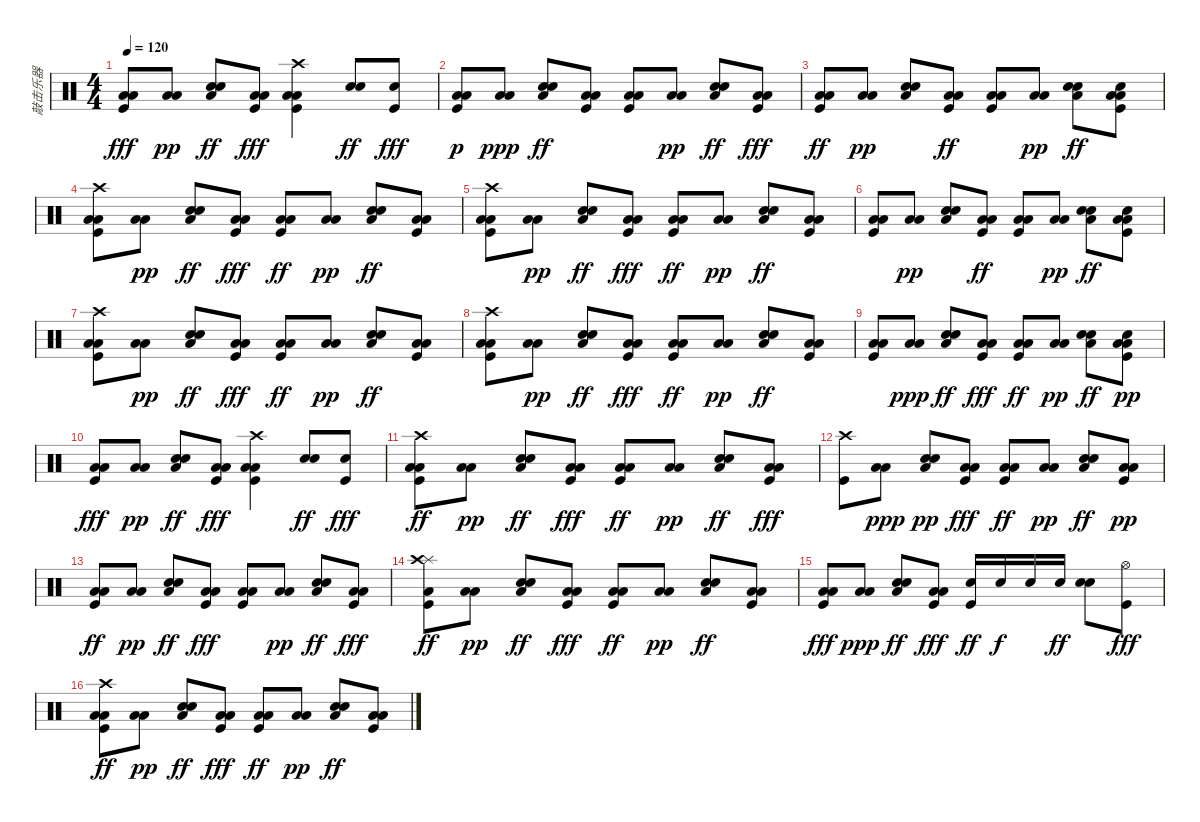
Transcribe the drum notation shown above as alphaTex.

\track ("敲击乐器" "敲击乐器") {instrument percussion}
\staff {score}
\articulation defaults
\ts (4 4)
\tempo 120
\clef neutral
\ks c
("Low Tom (hit)" "Low Floor Tom (hit)" "Kick (hit)").8{dy fff} ("Low Tom (hit)" "Low Floor Tom (hit)").8{dy pp} ("Snare (hit) 2" "Low Floor Tom (hit)" "Hand Clap (hit)").8{dy ff} ("Low Tom (hit)" "Low Floor Tom (hit)" "Kick (hit)").8{dy fff} ("Low Tom (hit)" "Low Floor Tom (hit)" "Kick (hit)" "Crash high (hit)").4 ("Snare (hit) 2" "Hand Clap (hit)").8{dy ff} ("Snare (hit) 2" "Kick (hit)").8{dy fff} |
("Low Tom (hit)" "Low Floor Tom (hit)" "Kick (hit)").8{dy p} ("Low Floor Tom (hit)" "Low Tom (hit)").8{dy ppp} ("Hand Clap (hit)" "Low Floor Tom (hit)" "Snare (hit) 2").8{dy ff} ("Low Tom (hit)" "Low Floor Tom (hit)" "Kick (hit)").8 ("Low Tom (hit)" "Low Floor Tom (hit)" "Kick (hit)").8 ("Low Tom (hit)" "Low Floor Tom (hit)").8{dy pp} ("Snare (hit) 2" "Low Floor Tom (hit)" "Hand Clap (hit)").8{dy ff} ("Low Tom (hit)" "Low Floor Tom (hit)" "Kick (hit)").8{dy fff} |
("Low Tom (hit)" "Low Floor Tom (hit)" "Kick (hit)").8{dy ff} ("Low Tom (hit)" "Low Floor Tom (hit)").8{dy pp} ("Hand Clap (hit)" "Snare (hit) 2" "Low Floor Tom (hit)").8 ("Low Tom (hit)" "Low Floor Tom (hit)" "Kick (hit)").8{dy ff} ("Low Tom (hit)" "Low Floor Tom (hit)" "Kick (hit)").8 ("Low Floor Tom (hit)" "Low Tom (hit)").8{dy pp} ("Snare (hit) 2" "Low Floor Tom (hit)" "Hand Clap (hit)").8{dy ff} ("Snare (hit) 2" "Low Tom (hit)" "Low Floor Tom (hit)" "Kick (hit)").8 |
("Crash high (hit)" "Low Tom (hit)" "Low Floor Tom (hit)" "Kick (hit)").8 ("Low Tom (hit)" "Low Floor Tom (hit)").8{dy pp} ("Snare (hit) 2" "Low Floor Tom (hit)" "Hand Clap (hit)").8{dy ff} ("Low Tom (hit)" "Low Floor Tom (hit)" "Kick (hit)").8{dy fff} ("Low Tom (hit)" "Low Floor Tom (hit)" "Kick (hit)").8{dy ff} ("Low Tom (hit)" "Low Floor Tom (hit)").8{dy pp} ("Low Floor Tom (hit)" "Hand Clap (hit)" "Snare (hit) 2").8{dy ff} ("Low Tom (hit)" "Low Floor Tom (hit)" "Kick (hit)").8 |
("Crash high (hit)" "Low Tom (hit)" "Low Floor Tom (hit)" "Kick (hit)").8 ("Low Tom (hit)" "Low Floor Tom (hit)").8{dy pp} ("Snare (hit) 2" "Low Floor Tom (hit)" "Hand Clap (hit)").8{dy ff} ("Low Tom (hit)" "Low Floor Tom (hit)" "Kick (hit)").8{dy fff} ("Low Tom (hit)" "Low Floor Tom (hit)" "Kick (hit)").8{dy ff} ("Low Tom (hit)" "Low Floor Tom (hit)").8{dy pp} ("Low Floor Tom (hit)" "Hand Clap (hit)" "Snare (hit) 2").8{dy ff} ("Low Tom (hit)" "Low Floor Tom (hit)" "Kick (hit)").8 |
("Low Tom (hit)" "Low Floor Tom (hit)" "Kick (hit)").8 ("Low Tom (hit)" "Low Floor Tom (hit)").8{dy pp} ("Hand Clap (hit)" "Snare (hit) 2" "Low Floor Tom (hit)").8 ("Low Tom (hit)" "Low Floor Tom (hit)" "Kick (hit)").8{dy ff} ("Low Tom (hit)" "Low Floor Tom (hit)" "Kick (hit)").8 ("Low Floor Tom (hit)" "Low Tom (hit)").8{dy pp} ("Snare (hit) 2" "Low Floor Tom (hit)" "Hand Clap (hit)").8{dy ff} ("Snare (hit) 2" "Low Tom (hit)" "Low Floor Tom (hit)" "Kick (hit)").8 |
("Crash high (hit)" "Low Tom (hit)" "Low Floor Tom (hit)" "Kick (hit)").8 ("Low Tom (hit)" "Low Floor Tom (hit)").8{dy pp} ("Snare (hit) 2" "Low Floor Tom (hit)" "Hand Clap (hit)").8{dy ff} ("Low Tom (hit)" "Low Floor Tom (hit)" "Kick (hit)").8{dy fff} ("Low Tom (hit)" "Low Floor Tom (hit)" "Kick (hit)").8{dy ff} ("Low Tom (hit)" "Low Floor Tom (hit)").8{dy pp} ("Low Floor Tom (hit)" "Hand Clap (hit)" "Snare (hit) 2").8{dy ff} ("Low Tom (hit)" "Low Floor Tom (hit)" "Kick (hit)").8 |
("Crash high (hit)" "Low Tom (hit)" "Low Floor Tom (hit)" "Kick (hit)").8 ("Low Tom (hit)" "Low Floor Tom (hit)").8{dy pp} ("Snare (hit) 2" "Low Floor Tom (hit)" "Hand Clap (hit)").8{dy ff} ("Low Tom (hit)" "Low Floor Tom (hit)" "Kick (hit)").8{dy fff} ("Low Tom (hit)" "Low Floor Tom (hit)" "Kick (hit)").8{dy ff} ("Low Tom (hit)" "Low Floor Tom (hit)").8{dy pp} ("Low Floor Tom (hit)" "Hand Clap (hit)" "Snare (hit) 2").8{dy ff} ("Low Tom (hit)" "Low Floor Tom (hit)" "Kick (hit)").8 |
("Low Tom (hit)" "Low Floor Tom (hit)" "Kick (hit)").8 ("Low Floor Tom (hit)" "Low Tom (hit)").8{dy ppp} ("Snare (hit) 2" "Low Floor Tom (hit)" "Hand Clap (hit)").8{dy ff} ("Low Tom (hit)" "Low Floor Tom (hit)" "Kick (hit)").8{dy fff} ("Low Tom (hit)" "Low Floor Tom (hit)" "Kick (hit)").8{dy ff} ("Low Tom (hit)" "Low Floor Tom (hit)").8{dy pp} ("Low Floor Tom (hit)" "Hand Clap (hit)" "Snare (hit) 2").8{dy ff} ("Snare (hit) 2" "Kick (hit)" "Low Tom (hit)" "Low Floor Tom (hit)").8{dy pp} |
("Low Tom (hit)" "Low Floor Tom (hit)" "Kick (hit)").8{dy fff} ("Low Tom (hit)" "Low Floor Tom (hit)").8{dy pp} ("Snare (hit) 2" "Low Floor Tom (hit)" "Hand Clap (hit)").8{dy ff} ("Low Tom (hit)" "Low Floor Tom (hit)" "Kick (hit)").8{dy fff} ("Low Tom (hit)" "Low Floor Tom (hit)" "Kick (hit)" "Crash high (hit)").4 ("Snare (hit) 2" "Hand Clap (hit)").8{dy ff} ("Snare (hit) 2" "Kick (hit)").8{dy fff} |
("Crash high (hit)" "Low Tom (hit)" "Low Floor Tom (hit)" "Kick (hit)").8{dy ff} ("Low Tom (hit)" "Low Floor Tom (hit)").8{dy pp} ("Snare (hit) 2" "Low Floor Tom (hit)" "Hand Clap (hit)").8{dy ff} ("Low Tom (hit)" "Low Floor Tom (hit)" "Kick (hit)").8{dy fff} ("Low Tom (hit)" "Low Floor Tom (hit)" "Kick (hit)").8{dy ff} ("Low Floor Tom (hit)" "Low Tom (hit)").8{dy pp} ("Snare (hit) 2" "Low Floor Tom (hit)" "Hand Clap (hit)").8{dy ff} ("Low Tom (hit)" "Low Floor Tom (hit)" "Kick (hit)").8{dy fff} |
("Crash high (hit)" "Kick (hit)").8 ("Low Floor Tom (hit)" "Low Tom (hit)").8{dy ppp} ("Hand Clap (hit)" "Snare (hit) 2" "Low Floor Tom (hit)").8{dy pp} ("Low Tom (hit)" "Low Floor Tom (hit)" "Kick (hit)").8{dy fff} ("Low Tom (hit)" "Low Floor Tom (hit)" "Kick (hit)").8{dy ff} ("Low Tom (hit)" "Low Floor Tom (hit)").8{dy pp} ("Snare (hit) 2" "Low Floor Tom (hit)" "Hand Clap (hit)").8{dy ff} ("Kick (hit)" "Low Tom (hit)" "Low Floor Tom (hit)").8{dy pp} |
("Low Tom (hit)" "Low Floor Tom (hit)" "Kick (hit)").8{dy ff} ("Low Tom (hit)" "Low Floor Tom (hit)").8{dy pp} ("Snare (hit) 2" "Low Floor Tom (hit)" "Hand Clap (hit)").8{dy ff} ("Low Tom (hit)" "Low Floor Tom (hit)" "Kick (hit)").8{dy fff} ("Low Tom (hit)" "Low Floor Tom (hit)" "Kick (hit)").8 ("Low Tom (hit)" "Low Floor Tom (hit)").8{dy pp} ("Low Floor Tom (hit)" "Hand Clap (hit)" "Snare (hit) 2").8{dy ff} ("Low Tom (hit)" "Low Floor Tom (hit)" "Kick (hit)").8{dy fff} |
("Splash (hit)" "Low Tom (hit)" "Kick (hit)" "Crash high (hit)").8{dy ff} ("Low Tom (hit)" "Low Floor Tom (hit)").8{dy pp} ("Low Floor Tom (hit)" "Hand Clap (hit)" "Snare (hit) 2").8{dy ff} ("Low Tom (hit)" "Low Floor Tom (hit)" "Kick (hit)").8{dy fff} ("Low Tom (hit)" "Low Floor Tom (hit)" "Kick (hit)").8{dy ff} ("Low Floor Tom (hit)" "Low Tom (hit)").8{dy pp} ("Low Floor Tom (hit)" "Hand Clap (hit)" "Snare (hit) 2").8{dy ff} ("Low Tom (hit)" "Low Floor Tom (hit)" "Kick (hit)").8 |
("Low Tom (hit)" "Low Floor Tom (hit)" "Kick (hit)").8{dy fff} ("Low Floor Tom (hit)" "Low Tom (hit)").8{dy ppp} ("Low Floor Tom (hit)" "Hand Clap (hit)" "Snare (hit) 2").8{dy ff} ("Low Tom (hit)" "Low Floor Tom (hit)" "Kick (hit)").8{dy fff} ("Kick (hit)" "Snare (hit) 2").16{dy ff} "Snare (hit) 2".16{dy f} "Snare (hit) 2".16 "Snare (hit) 2".16{dy ff} ("Hand Clap (hit)" "Snare (hit) 2").8 ("Kick (hit)" "Hi-Hat (open)").8{dy fff} |
("Crash high (hit)" "Low Tom (hit)" "Low Floor Tom (hit)" "Kick (hit)").8{dy ff} ("Low Tom (hit)" "Low Floor Tom (hit)").8{dy pp} ("Snare (hit) 2" "Low Floor Tom (hit)" "Hand Clap (hit)").8{dy ff} ("Low Tom (hit)" "Low Floor Tom (hit)" "Kick (hit)").8{dy fff} ("Low Tom (hit)" "Low Floor Tom (hit)" "Kick (hit)").8{dy ff} ("Low Tom (hit)" "Low Floor Tom (hit)").8{dy pp} ("Low Floor Tom (hit)" "Hand Clap (hit)" "Snare (hit) 2").8{dy ff} ("Low Tom (hit)" "Low Floor Tom (hit)" "Kick (hit)").8
